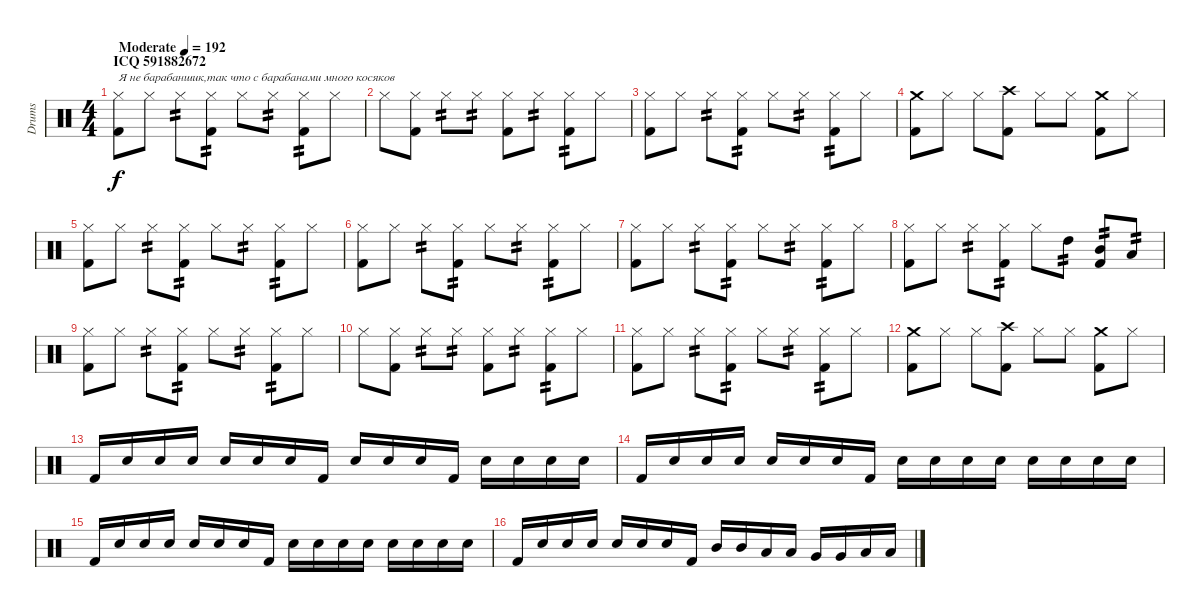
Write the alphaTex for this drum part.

\track ("Drums" "Drums") {instrument percussion}
\staff {score}
\articulation defaults
\ts (4 4)
\section ("" "ICQ 591882672")
\tempo (192 "Moderate")
\clef neutral
\ks c
("Hi-Hat (closed)" "Kick (hit) 2").8{txt "Я не барабаншик,так что с барабанами много косяков" dy f} "Hi-Hat (closed)".8 "Hi-Hat (closed)".8{tp 2} ("Hi-Hat (closed)" "Kick (hit) 2").8{tp 2} "Hi-Hat (closed)".8 "Hi-Hat (closed)".8{tp 2} ("Hi-Hat (closed)" "Kick (hit) 2").8{tp 2} "Hi-Hat (closed)".8 |
"Hi-Hat (closed)".8 ("Hi-Hat (closed)" "Kick (hit) 2").8 "Hi-Hat (closed)".8{tp 2} "Hi-Hat (closed)".8{tp 2} ("Hi-Hat (closed)" "Kick (hit) 2").8 "Hi-Hat (closed)".8{tp 2} ("Hi-Hat (closed)" "Kick (hit) 2").8{tp 2} "Hi-Hat (closed)".8 |
("Hi-Hat (closed)" "Kick (hit) 2").8 "Hi-Hat (closed)".8 "Hi-Hat (closed)".8{tp 2} ("Hi-Hat (closed)" "Kick (hit) 2").8{tp 2} "Hi-Hat (closed)".8 "Hi-Hat (closed)".8{tp 2} ("Hi-Hat (closed)" "Kick (hit) 2").8{tp 2} "Hi-Hat (closed)".8 |
("Crash medium (hit)" "Kick (hit) 2").8 "Hi-Hat (closed)".8 "Hi-Hat (closed)".8 ("Crash high (hit)" "Kick (hit) 2").8 "Hi-Hat (closed)".8 "Hi-Hat (closed)".8 ("Crash medium (hit)" "Kick (hit) 2").8 "Hi-Hat (closed)".8 |
("Hi-Hat (closed)" "Kick (hit) 2").8 "Hi-Hat (closed)".8 "Hi-Hat (closed)".8{tp 2} ("Hi-Hat (closed)" "Kick (hit) 2").8{tp 2} "Hi-Hat (closed)".8 "Hi-Hat (closed)".8{tp 2} ("Hi-Hat (closed)" "Kick (hit) 2").8{tp 2} "Hi-Hat (closed)".8 |
("Hi-Hat (closed)" "Kick (hit) 2").8 "Hi-Hat (closed)".8 "Hi-Hat (closed)".8{tp 2} ("Hi-Hat (closed)" "Kick (hit) 2").8{tp 2} "Hi-Hat (closed)".8 "Hi-Hat (closed)".8{tp 2} ("Hi-Hat (closed)" "Kick (hit) 2").8{tp 2} "Hi-Hat (closed)".8 |
("Hi-Hat (closed)" "Kick (hit) 2").8 "Hi-Hat (closed)".8 "Hi-Hat (closed)".8{tp 2} ("Hi-Hat (closed)" "Kick (hit) 2").8{tp 2} "Hi-Hat (closed)".8 "Hi-Hat (closed)".8{tp 2} ("Hi-Hat (closed)" "Kick (hit) 2").8{tp 2} "Hi-Hat (closed)".8 |
("Hi-Hat (closed)" "Kick (hit) 2").8 "Hi-Hat (closed)".8 "Hi-Hat (closed)".8{tp 2} ("Hi-Hat (closed)" "Kick (hit) 2").8{tp 2} "Hi-Hat (closed)".8 "High Tom (hit)".8{tp 2} ("Mid Tom (hit)" "Kick (hit) 2").8{tp 2} "Low Tom (hit)".8{tp 2} |
("Hi-Hat (closed)" "Kick (hit) 2").8 "Hi-Hat (closed)".8 "Hi-Hat (closed)".8{tp 2} ("Hi-Hat (closed)" "Kick (hit) 2").8{tp 2} "Hi-Hat (closed)".8 "Hi-Hat (closed)".8{tp 2} ("Hi-Hat (closed)" "Kick (hit) 2").8{tp 2} "Hi-Hat (closed)".8 |
"Hi-Hat (closed)".8 ("Hi-Hat (closed)" "Kick (hit) 2").8 "Hi-Hat (closed)".8{tp 2} "Hi-Hat (closed)".8{tp 2} ("Hi-Hat (closed)" "Kick (hit) 2").8 "Hi-Hat (closed)".8{tp 2} ("Hi-Hat (closed)" "Kick (hit) 2").8{tp 2} "Hi-Hat (closed)".8 |
("Hi-Hat (closed)" "Kick (hit) 2").8 "Hi-Hat (closed)".8 "Hi-Hat (closed)".8{tp 2} ("Hi-Hat (closed)" "Kick (hit) 2").8{tp 2} "Hi-Hat (closed)".8 "Hi-Hat (closed)".8{tp 2} ("Hi-Hat (closed)" "Kick (hit) 2").8{tp 2} "Hi-Hat (closed)".8 |
("Crash medium (hit)" "Kick (hit) 2").8 "Hi-Hat (closed)".8 "Hi-Hat (closed)".8 ("Crash high (hit)" "Kick (hit) 2").8 "Hi-Hat (closed)".8 "Hi-Hat (closed)".8 ("Crash medium (hit)" "Kick (hit) 2").8 "Hi-Hat (closed)".8 |
"Kick (hit) 2".16 "Snare (hit) 2".16 "Snare (hit) 2".16 "Snare (hit) 2".16 "Snare (hit) 2".16 "Snare (hit) 2".16 "Snare (hit) 2".16 "Kick (hit) 2".16 "Snare (hit) 2".16 "Snare (hit) 2".16 "Snare (hit) 2".16 "Kick (hit) 2".16 "Snare (hit) 2".16 "Snare (hit) 2".16 "Snare (hit) 2".16 "Snare (hit) 2".16 |
"Kick (hit) 2".16 "Snare (hit) 2".16 "Snare (hit) 2".16 "Snare (hit) 2".16 "Snare (hit) 2".16 "Snare (hit) 2".16 "Snare (hit) 2".16 "Kick (hit) 2".16 "Snare (hit) 2".16 "Snare (hit) 2".16 "Snare (hit) 2".16 "Snare (hit) 2".16 "Snare (hit) 2".16 "Snare (hit) 2".16 "Snare (hit) 2".16 "Snare (hit) 2".16 |
"Kick (hit) 2".16 "Snare (hit) 2".16 "Snare (hit) 2".16 "Snare (hit) 2".16 "Snare (hit) 2".16 "Snare (hit) 2".16 "Snare (hit) 2".16 "Kick (hit) 2".16 "Snare (hit) 2".16 "Snare (hit) 2".16 "Snare (hit) 2".16 "Snare (hit) 2".16 "Snare (hit) 2".16 "Snare (hit) 2".16 "Snare (hit) 2".16 "Snare (hit) 2".16 |
"Kick (hit) 2".16 "Snare (hit) 2".16 "Snare (hit) 2".16 "Snare (hit) 2".16 "Snare (hit) 2".16 "Snare (hit) 2".16 "Snare (hit) 2".16 "Kick (hit) 2".16 "Mid Tom (hit)".16 "Mid Tom (hit)".16 "Low Tom (hit)".16 "Low Tom (hit)".16 "Very Low Tom (hit)".16 "Very Low Tom (hit)".16 "Low Floor Tom (hit)".16 "Low Floor Tom (hit)".16
